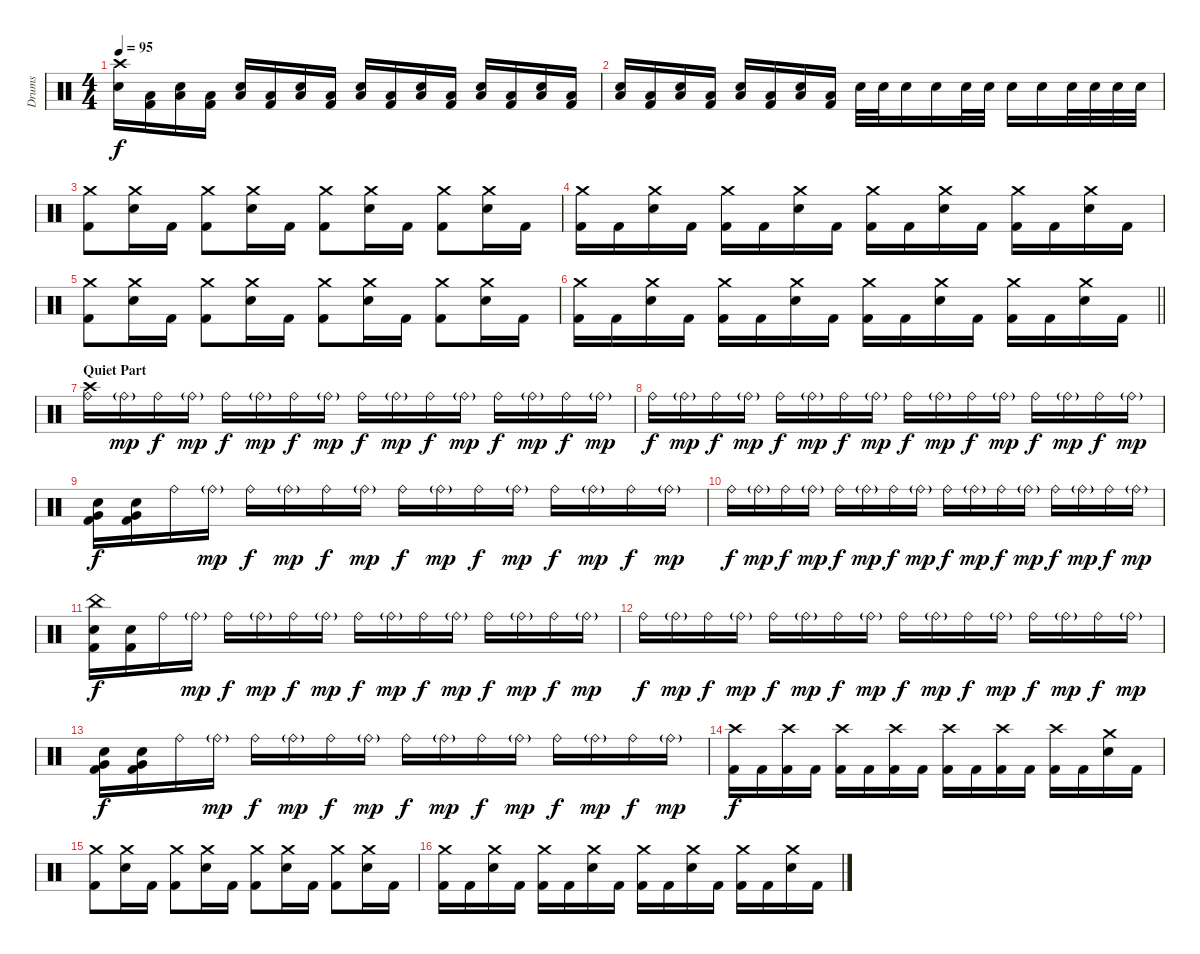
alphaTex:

\track ("Drums" "Drums") {instrument percussion}
\staff {score}
\articulation defaults
\ts (4 4)
\tempo 95
\clef neutral
\ks c
("Crash high (hit)" "Electric Snare (hit)").16{dy f} ("Low Floor Tom (hit)" "Kick (hit) 2").16 ("Low Floor Tom (hit)" "Electric Snare (hit)").16 ("Low Floor Tom (hit)" "Kick (hit) 2").16 ("Low Floor Tom (hit)" "Electric Snare (hit)").16 ("Low Floor Tom (hit)" "Kick (hit) 2").16 ("Low Floor Tom (hit)" "Electric Snare (hit)").16 ("Low Floor Tom (hit)" "Kick (hit) 2").16 ("Low Floor Tom (hit)" "Electric Snare (hit)").16 ("Low Floor Tom (hit)" "Kick (hit) 2").16 ("Low Floor Tom (hit)" "Electric Snare (hit)").16 ("Low Floor Tom (hit)" "Kick (hit) 2").16 ("Low Floor Tom (hit)" "Electric Snare (hit)").16 ("Low Floor Tom (hit)" "Kick (hit) 2").16 ("Low Floor Tom (hit)" "Electric Snare (hit)").16 ("Low Floor Tom (hit)" "Kick (hit) 2").16 |
("Low Floor Tom (hit)" "Electric Snare (hit)").16 ("Low Floor Tom (hit)" "Kick (hit) 2").16 ("Low Floor Tom (hit)" "Electric Snare (hit)").16 ("Low Floor Tom (hit)" "Kick (hit) 2").16 ("Low Floor Tom (hit)" "Electric Snare (hit)").16 ("Low Floor Tom (hit)" "Kick (hit) 2").16 ("Low Floor Tom (hit)" "Electric Snare (hit)").16 ("Low Floor Tom (hit)" "Kick (hit) 2").16 "Electric Snare (hit)".32 "Electric Snare (hit)".32 "Electric Snare (hit)".16 "Electric Snare (hit)".16 "Electric Snare (hit)".32 "Electric Snare (hit)".32 "Electric Snare (hit)".16 "Electric Snare (hit)".16 "Electric Snare (hit)".32 "Electric Snare (hit)".32 "Electric Snare (hit)".32 "Electric Snare (hit)".32 |
("Crash medium (hit)" "Kick (hit) 2").8 ("Crash medium (hit)" "Electric Snare (hit)").16 "Kick (hit) 2".16 ("Crash medium (hit)" "Kick (hit) 2").8 ("Crash medium (hit)" "Electric Snare (hit)").16 "Kick (hit) 2".16 ("Crash medium (hit)" "Kick (hit) 2").8 ("Crash medium (hit)" "Electric Snare (hit)").16 "Kick (hit) 2".16 ("Crash medium (hit)" "Kick (hit) 2").8 ("Crash medium (hit)" "Electric Snare (hit)").16 "Kick (hit) 2".16 |
("Crash medium (hit)" "Kick (hit) 2").16 "Kick (hit) 2".16 ("Crash medium (hit)" "Electric Snare (hit)").16 "Kick (hit) 2".16 ("Crash medium (hit)" "Kick (hit) 2").16 "Kick (hit) 2".16 ("Crash medium (hit)" "Electric Snare (hit)").16 "Kick (hit) 2".16 ("Crash medium (hit)" "Kick (hit) 2").16 "Kick (hit) 2".16 ("Crash medium (hit)" "Electric Snare (hit)").16 "Kick (hit) 2".16 ("Crash medium (hit)" "Kick (hit) 2").16 "Kick (hit) 2".16 ("Crash medium (hit)" "Electric Snare (hit)").16 "Kick (hit) 2".16 |
("Crash medium (hit)" "Kick (hit) 2").8 ("Crash medium (hit)" "Electric Snare (hit)").16 "Kick (hit) 2".16 ("Crash medium (hit)" "Kick (hit) 2").8 ("Crash medium (hit)" "Electric Snare (hit)").16 "Kick (hit) 2".16 ("Crash medium (hit)" "Kick (hit) 2").8 ("Crash medium (hit)" "Electric Snare (hit)").16 "Kick (hit) 2".16 ("Crash medium (hit)" "Kick (hit) 2").8 ("Crash medium (hit)" "Electric Snare (hit)").16 "Kick (hit) 2".16 |
\barLineRight lightlight
("Crash medium (hit)" "Kick (hit) 2").16 "Kick (hit) 2".16 ("Crash medium (hit)" "Electric Snare (hit)").16 "Kick (hit) 2".16 ("Crash medium (hit)" "Kick (hit) 2").16 "Kick (hit) 2".16 ("Crash medium (hit)" "Electric Snare (hit)").16 "Kick (hit) 2".16 ("Crash medium (hit)" "Kick (hit) 2").16 "Kick (hit) 2".16 ("Crash medium (hit)" "Electric Snare (hit)").16 "Kick (hit) 2".16 ("Crash medium (hit)" "Kick (hit) 2").16 "Kick (hit) 2".16 ("Crash medium (hit)" "Electric Snare (hit)").16 "Kick (hit) 2".16 |
\section ("" "Quiet Part")
("Crash high (hit)" "Ride (bell)").16 "Ride (bell)"{g}.16{dy mp} "Ride (bell)".16{dy f} "Ride (bell)"{g}.16{dy mp} "Ride (bell)".16{dy f} "Ride (bell)"{g}.16{dy mp} "Ride (bell)".16{dy f} "Ride (bell)"{g}.16{dy mp} "Ride (bell)".16{dy f} "Ride (bell)"{g}.16{dy mp} "Ride (bell)".16{dy f} "Ride (bell)"{g}.16{dy mp} "Ride (bell)".16{dy f} "Ride (bell)"{g}.16{dy mp} "Ride (bell)".16{dy f} "Ride (bell)"{g}.16{dy mp} |
"Ride (bell)".16{dy f} "Ride (bell)"{g}.16{dy mp} "Ride (bell)".16{dy f} "Ride (bell)"{g}.16{dy mp} "Ride (bell)".16{dy f} "Ride (bell)"{g}.16{dy mp} "Ride (bell)".16{dy f} "Ride (bell)"{g}.16{dy mp} "Ride (bell)".16{dy f} "Ride (bell)"{g}.16{dy mp} "Ride (bell)".16{dy f} "Ride (bell)"{g}.16{dy mp} "Ride (bell)".16{dy f} "Ride (bell)"{g}.16{dy mp} "Ride (bell)".16{dy f} "Ride (bell)"{g}.16{dy mp} |
("Very Low Tom (hit)" "Electric Snare (hit)" "Kick (hit) 2").16{dy f} ("Very Low Tom (hit)" "Electric Snare (hit)" "Kick (hit) 2").16 "Ride (bell)".16 "Ride (bell)"{g}.16{dy mp} "Ride (bell)".16{dy f} "Ride (bell)"{g}.16{dy mp} "Ride (bell)".16{dy f} "Ride (bell)"{g}.16{dy mp} "Ride (bell)".16{dy f} "Ride (bell)"{g}.16{dy mp} "Ride (bell)".16{dy f} "Ride (bell)"{g}.16{dy mp} "Ride (bell)".16{dy f} "Ride (bell)"{g}.16{dy mp} "Ride (bell)".16{dy f} "Ride (bell)"{g}.16{dy mp} |
"Ride (bell)".16{dy f} "Ride (bell)"{g}.16{dy mp} "Ride (bell)".16{dy f} "Ride (bell)"{g}.16{dy mp} "Ride (bell)".16{dy f} "Ride (bell)"{g}.16{dy mp} "Ride (bell)".16{dy f} "Ride (bell)"{g}.16{dy mp} "Ride (bell)".16{dy f} "Ride (bell)"{g}.16{dy mp} "Ride (bell)".16{dy f} "Ride (bell)"{g}.16{dy mp} "Ride (bell)".16{dy f} "Ride (bell)"{g}.16{dy mp} "Ride (bell)".16{dy f} "Ride (bell)"{g}.16{dy mp} |
("China (hit)" "Electric Snare (hit)" "Kick (hit) 2").16{dy f} ("Electric Snare (hit)" "Kick (hit) 2").16 "Ride (bell)".16 "Ride (bell)"{g}.16{dy mp} "Ride (bell)".16{dy f} "Ride (bell)"{g}.16{dy mp} "Ride (bell)".16{dy f} "Ride (bell)"{g}.16{dy mp} "Ride (bell)".16{dy f} "Ride (bell)"{g}.16{dy mp} "Ride (bell)".16{dy f} "Ride (bell)"{g}.16{dy mp} "Ride (bell)".16{dy f} "Ride (bell)"{g}.16{dy mp} "Ride (bell)".16{dy f} "Ride (bell)"{g}.16{dy mp} |
"Ride (bell)".16{dy f} "Ride (bell)"{g}.16{dy mp} "Ride (bell)".16{dy f} "Ride (bell)"{g}.16{dy mp} "Ride (bell)".16{dy f} "Ride (bell)"{g}.16{dy mp} "Ride (bell)".16{dy f} "Ride (bell)"{g}.16{dy mp} "Ride (bell)".16{dy f} "Ride (bell)"{g}.16{dy mp} "Ride (bell)".16{dy f} "Ride (bell)"{g}.16{dy mp} "Ride (bell)".16{dy f} "Ride (bell)"{g}.16{dy mp} "Ride (bell)".16{dy f} "Ride (bell)"{g}.16{dy mp} |
("Very Low Tom (hit)" "Electric Snare (hit)" "Kick (hit) 2").16{dy f} ("Very Low Tom (hit)" "Electric Snare (hit)" "Kick (hit) 2").16 "Ride (bell)".16 "Ride (bell)"{g}.16{dy mp} "Ride (bell)".16{dy f} "Ride (bell)"{g}.16{dy mp} "Ride (bell)".16{dy f} "Ride (bell)"{g}.16{dy mp} "Ride (bell)".16{dy f} "Ride (bell)"{g}.16{dy mp} "Ride (bell)".16{dy f} "Ride (bell)"{g}.16{dy mp} "Ride (bell)".16{dy f} "Ride (bell)"{g}.16{dy mp} "Ride (bell)".16{dy f} "Ride (bell)"{g}.16{dy mp} |
("Crash high (hit)" "Kick (hit) 2").16{dy f} "Kick (hit) 2".16 ("Crash high (hit)" "Kick (hit) 2").16 "Kick (hit) 2".16 ("Crash high (hit)" "Kick (hit) 2").16 "Kick (hit) 2".16 ("Crash high (hit)" "Kick (hit) 2").16 "Kick (hit) 2".16 ("Crash high (hit)" "Kick (hit) 2").16 "Kick (hit) 2".16 ("Crash high (hit)" "Kick (hit) 2").16 "Kick (hit) 2".16 ("Crash high (hit)" "Kick (hit) 2").16 "Kick (hit) 2".16 ("Crash medium (hit)" "Electric Snare (hit)").16 "Kick (hit) 2".16 |
("Crash medium (hit)" "Kick (hit) 2").8 ("Crash medium (hit)" "Electric Snare (hit)").16 "Kick (hit) 2".16 ("Crash medium (hit)" "Kick (hit) 2").8 ("Crash medium (hit)" "Electric Snare (hit)").16 "Kick (hit) 2".16 ("Crash medium (hit)" "Kick (hit) 2").8 ("Crash medium (hit)" "Electric Snare (hit)").16 "Kick (hit) 2".16 ("Crash medium (hit)" "Kick (hit) 2").8 ("Crash medium (hit)" "Electric Snare (hit)").16 "Kick (hit) 2".16 |
("Crash medium (hit)" "Kick (hit) 2").16 "Kick (hit) 2".16 ("Crash medium (hit)" "Electric Snare (hit)").16 "Kick (hit) 2".16 ("Crash medium (hit)" "Kick (hit) 2").16 "Kick (hit) 2".16 ("Crash medium (hit)" "Electric Snare (hit)").16 "Kick (hit) 2".16 ("Crash medium (hit)" "Kick (hit) 2").16 "Kick (hit) 2".16 ("Crash medium (hit)" "Electric Snare (hit)").16 "Kick (hit) 2".16 ("Crash medium (hit)" "Kick (hit) 2").16 "Kick (hit) 2".16 ("Crash medium (hit)" "Electric Snare (hit)").16 "Kick (hit) 2".16
